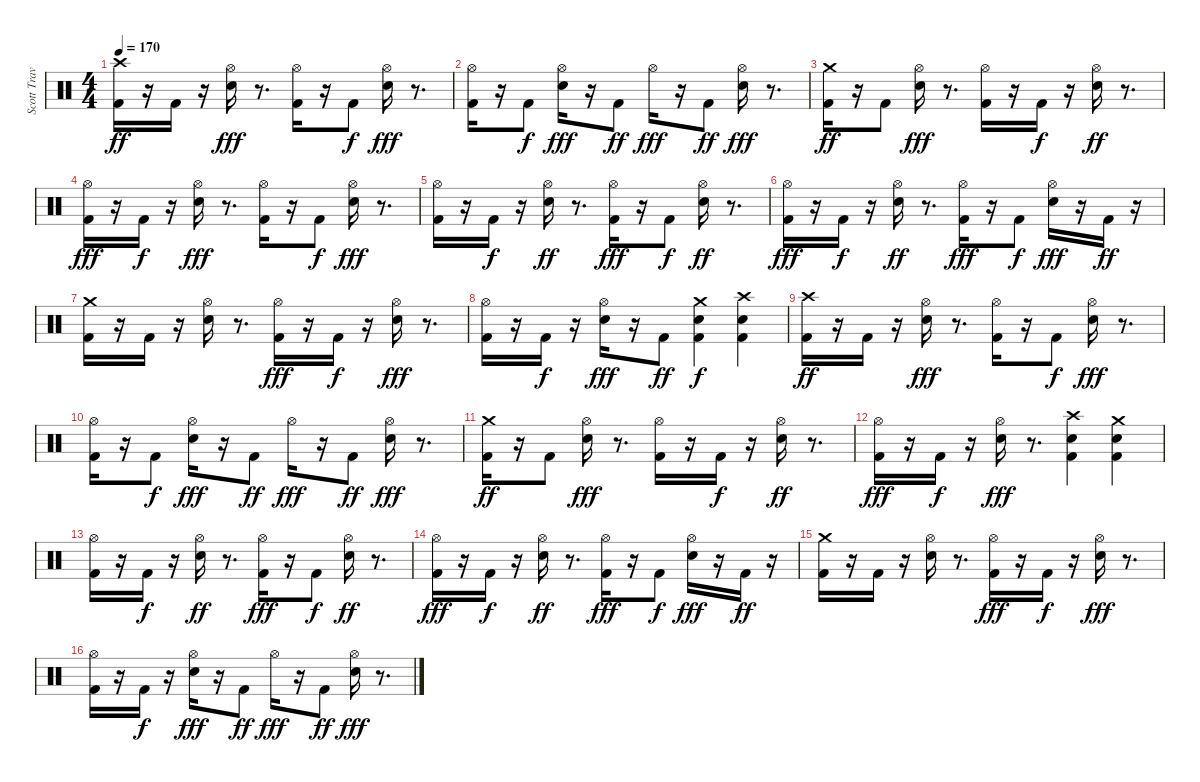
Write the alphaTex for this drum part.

\track ("Scott Travis" "Scott Trav") {instrument percussion}
\staff {score}
\articulation defaults
\ts (4 4)
\tempo 170
\clef neutral
\ks c
("Crash high (hit)" "Kick (hit) 2").16{dy ff} r.16 "Kick (hit) 2".16 r.16 ("Hi-Hat (open)" "Snare (hit) 2").16{dy fff} r.8{d} ("Kick (hit) 2" "Hi-Hat (open)").16 r.16 "Kick (hit) 2".8{dy f} ("Snare (hit) 2" "Hi-Hat (open)").16{dy fff} r.8{d} |
("Kick (hit) 2" "Hi-Hat (open)").16 r.16 "Kick (hit) 2".8{dy f} ("Snare (hit) 2" "Hi-Hat (open)").16{dy fff} r.16 "Kick (hit) 2".8{dy ff} "Hi-Hat (open)".16{dy fff} r.16 "Kick (hit) 2".8{dy ff} ("Snare (hit) 2" "Hi-Hat (open)").16{dy fff} r.8{d} |
("Kick (hit) 2" "Crash medium (hit)").16{dy ff} r.16 "Kick (hit) 2".8 ("Hi-Hat (open)" "Snare (hit) 2").16{dy fff} r.8{d} ("Kick (hit) 2" "Hi-Hat (open)").16 r.16 "Kick (hit) 2".16{dy f} r.16 ("Hi-Hat (open)" "Snare (hit) 2").16{dy ff} r.8{d} |
("Hi-Hat (open)" "Kick (hit) 2").16{dy fff} r.16 "Kick (hit) 2".16{dy f} r.16 ("Snare (hit) 2" "Hi-Hat (open)").16{dy fff} r.8{d} ("Kick (hit) 2" "Hi-Hat (open)").16 r.16 "Kick (hit) 2".8{dy f} ("Snare (hit) 2" "Hi-Hat (open)").16{dy fff} r.8{d} |
("Kick (hit) 2" "Hi-Hat (open)").16 r.16 "Kick (hit) 2".16{dy f} r.16 ("Hi-Hat (open)" "Snare (hit) 2").16{dy ff} r.8{d} ("Kick (hit) 2" "Hi-Hat (open)").16{dy fff} r.16 "Kick (hit) 2".8{dy f} ("Hi-Hat (open)" "Snare (hit) 2").16{dy ff} r.8{d} |
("Kick (hit) 2" "Hi-Hat (open)").16{dy fff} r.16 "Kick (hit) 2".16{dy f} r.16 ("Hi-Hat (open)" "Snare (hit) 2").16{dy ff} r.8{d} ("Kick (hit) 2" "Hi-Hat (open)").16{dy fff} r.16 "Kick (hit) 2".8{dy f} ("Snare (hit) 2" "Hi-Hat (open)").16{dy fff} r.16 "Kick (hit) 2".16{dy ff} r.16 |
("Crash medium (hit)" "Kick (hit) 2").16 r.16 "Kick (hit) 2".16 r.16 ("Snare (hit) 2" "Hi-Hat (open)").16 r.8{d} ("Kick (hit) 2" "Hi-Hat (open)").16{dy fff} r.16 "Kick (hit) 2".16{dy f} r.16 ("Snare (hit) 2" "Hi-Hat (open)").16{dy fff} r.8{d} |
("Kick (hit) 2" "Hi-Hat (open)").16 r.16 "Kick (hit) 2".16{dy f} r.16 ("Snare (hit) 2" "Hi-Hat (open)").16{dy fff} r.16 "Kick (hit) 2".8{dy ff} ("Snare (hit) 2" "Crash medium (hit)" "Kick (hit) 2").4{dy f} ("Snare (hit) 2" "Crash high (hit)" "Kick (hit) 2").4 |
("Crash high (hit)" "Kick (hit) 2").16{dy ff} r.16 "Kick (hit) 2".16 r.16 ("Hi-Hat (open)" "Snare (hit) 2").16{dy fff} r.8{d} ("Kick (hit) 2" "Hi-Hat (open)").16 r.16 "Kick (hit) 2".8{dy f} ("Snare (hit) 2" "Hi-Hat (open)").16{dy fff} r.8{d} |
("Kick (hit) 2" "Hi-Hat (open)").16 r.16 "Kick (hit) 2".8{dy f} ("Snare (hit) 2" "Hi-Hat (open)").16{dy fff} r.16 "Kick (hit) 2".8{dy ff} "Hi-Hat (open)".16{dy fff} r.16 "Kick (hit) 2".8{dy ff} ("Snare (hit) 2" "Hi-Hat (open)").16{dy fff} r.8{d} |
("Kick (hit) 2" "Crash medium (hit)").16{dy ff} r.16 "Kick (hit) 2".8 ("Hi-Hat (open)" "Snare (hit) 2").16{dy fff} r.8{d} ("Kick (hit) 2" "Hi-Hat (open)").16 r.16 "Kick (hit) 2".16{dy f} r.16 ("Hi-Hat (open)" "Snare (hit) 2").16{dy ff} r.8{d} |
("Hi-Hat (open)" "Kick (hit) 2").16{dy fff} r.16 "Kick (hit) 2".16{dy f} r.16 ("Snare (hit) 2" "Hi-Hat (open)").16{dy fff} r.8{d} ("Snare (hit) 2" "Kick (hit) 2" "Crash high (hit)").4 ("Snare (hit) 2" "Kick (hit) 2" "Crash medium (hit)").4 |
("Kick (hit) 2" "Hi-Hat (open)").16 r.16 "Kick (hit) 2".16{dy f} r.16 ("Hi-Hat (open)" "Snare (hit) 2").16{dy ff} r.8{d} ("Kick (hit) 2" "Hi-Hat (open)").16{dy fff} r.16 "Kick (hit) 2".8{dy f} ("Hi-Hat (open)" "Snare (hit) 2").16{dy ff} r.8{d} |
("Kick (hit) 2" "Hi-Hat (open)").16{dy fff} r.16 "Kick (hit) 2".16{dy f} r.16 ("Hi-Hat (open)" "Snare (hit) 2").16{dy ff} r.8{d} ("Kick (hit) 2" "Hi-Hat (open)").16{dy fff} r.16 "Kick (hit) 2".8{dy f} ("Snare (hit) 2" "Hi-Hat (open)").16{dy fff} r.16 "Kick (hit) 2".16{dy ff} r.16 |
("Crash medium (hit)" "Kick (hit) 2").16 r.16 "Kick (hit) 2".16 r.16 ("Snare (hit) 2" "Hi-Hat (open)").16 r.8{d} ("Kick (hit) 2" "Hi-Hat (open)").16{dy fff} r.16 "Kick (hit) 2".16{dy f} r.16 ("Snare (hit) 2" "Hi-Hat (open)").16{dy fff} r.8{d} |
("Kick (hit) 2" "Hi-Hat (open)").16 r.16 "Kick (hit) 2".16{dy f} r.16 ("Snare (hit) 2" "Hi-Hat (open)").16{dy fff} r.16 "Kick (hit) 2".8{dy ff} "Hi-Hat (open)".16{dy fff} r.16 "Kick (hit) 2".8{dy ff} ("Snare (hit) 2" "Hi-Hat (open)").16{dy fff} r.8{d}
